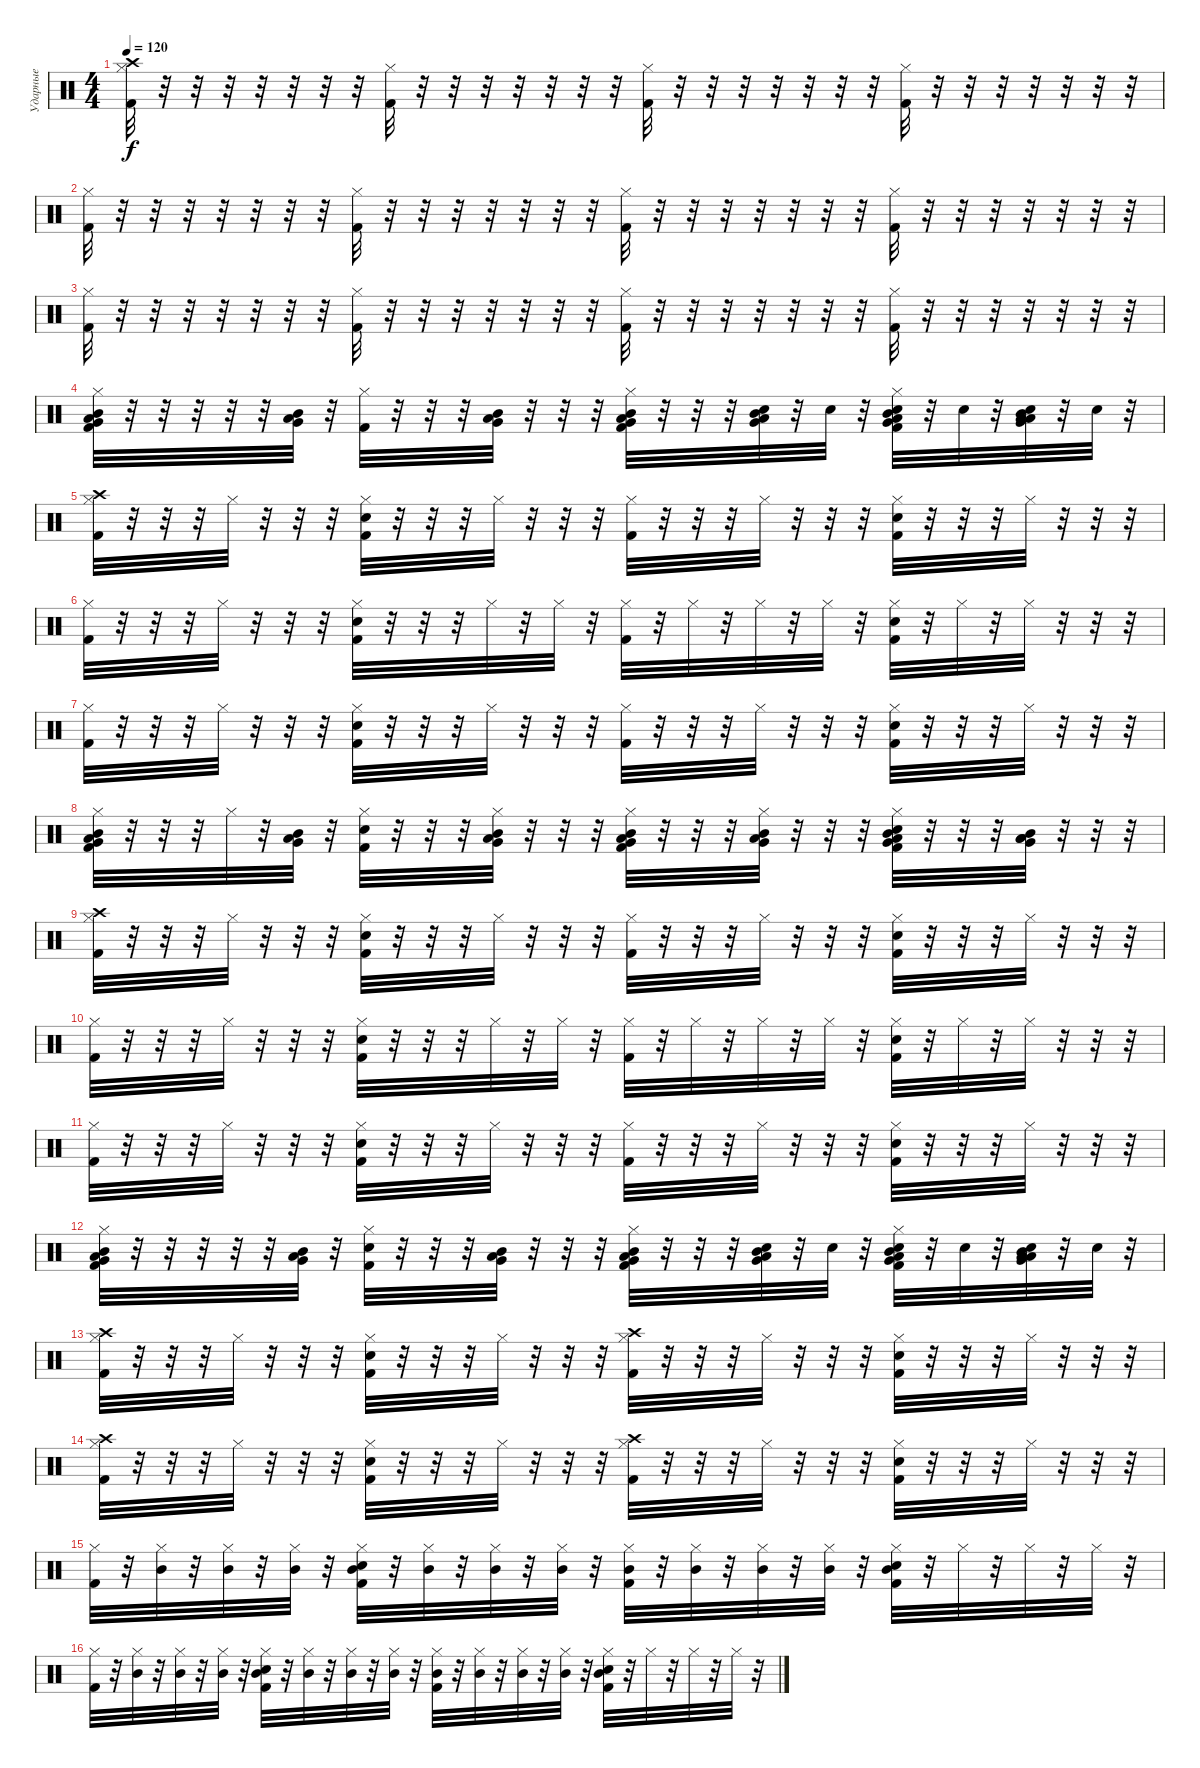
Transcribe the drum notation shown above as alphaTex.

\track ("Ударные" "Ударные") {instrument percussion}
\staff {score}
\articulation defaults
\ts (4 4)
\tempo 120
\clef neutral
\ks c
("Crash high (hit)" "Hi-Hat (closed)" "Kick (hit) 2").32{dy f} r.32 r.32 r.32 r.32 r.32 r.32 r.32 ("Hi-Hat (closed)" "Kick (hit) 2").32 r.32 r.32 r.32 r.32 r.32 r.32 r.32 ("Hi-Hat (closed)" "Kick (hit) 2").32 r.32 r.32 r.32 r.32 r.32 r.32 r.32 ("Kick (hit) 2" "Hi-Hat (closed)").32 r.32 r.32 r.32 r.32 r.32 r.32 r.32 |
("Hi-Hat (closed)" "Kick (hit) 2").32 r.32 r.32 r.32 r.32 r.32 r.32 r.32 ("Hi-Hat (closed)" "Kick (hit) 2").32 r.32 r.32 r.32 r.32 r.32 r.32 r.32 ("Hi-Hat (closed)" "Kick (hit) 2").32 r.32 r.32 r.32 r.32 r.32 r.32 r.32 ("Kick (hit) 2" "Hi-Hat (closed)").32 r.32 r.32 r.32 r.32 r.32 r.32 r.32 |
("Hi-Hat (closed)" "Kick (hit) 2").32 r.32 r.32 r.32 r.32 r.32 r.32 r.32 ("Hi-Hat (closed)" "Kick (hit) 2").32 r.32 r.32 r.32 r.32 r.32 r.32 r.32 ("Hi-Hat (closed)" "Kick (hit) 2").32 r.32 r.32 r.32 r.32 r.32 r.32 r.32 ("Kick (hit) 2" "Hi-Hat (closed)").32 r.32 r.32 r.32 r.32 r.32 r.32 r.32 |
("Very Low Tom (hit)" "Hi-Hat (closed)" "Kick (hit) 2" "Low Tom (hit)" "Mid Tom (hit)").32 r.32 r.32 r.32 r.32 r.32 ("Very Low Tom (hit)" "Low Tom (hit)" "Mid Tom (hit)").32 r.32 ("Hi-Hat (closed)" "Kick (hit) 2").32 r.32 r.32 r.32 ("Very Low Tom (hit)" "Low Tom (hit)" "Mid Tom (hit)").32 r.32 r.32 r.32 ("Very Low Tom (hit)" "Hi-Hat (closed)" "Kick (hit) 2" "Mid Tom (hit)" "Low Tom (hit)").32 r.32 r.32 r.32 ("Very Low Tom (hit)" "Snare (hit) 2" "Mid Tom (hit)" "Low Tom (hit)").32 r.32 "Snare (hit) 2".32 r.32 ("Very Low Tom (hit)" "Snare (hit) 2" "Hi-Hat (closed)" "Kick (hit) 2" "Mid Tom (hit)" "Low Tom (hit)").32 r.32 "Snare (hit) 2".32 r.32 ("Very Low Tom (hit)" "Snare (hit) 2" "Mid Tom (hit)" "Low Tom (hit)" "Low Tom (hit)").32 r.32 "Snare (hit) 2".32 r.32 |
("Crash high (hit)" "Hi-Hat (closed)" "Kick (hit) 2").32 r.32 r.32 r.32 "Hi-Hat (closed)".32 r.32 r.32 r.32 ("Hi-Hat (closed)" "Kick (hit) 2" "Snare (hit) 2").32 r.32 r.32 r.32 "Hi-Hat (closed)".32 r.32 r.32 r.32 ("Hi-Hat (closed)" "Kick (hit) 2").32 r.32 r.32 r.32 "Hi-Hat (closed)".32 r.32 r.32 r.32 ("Snare (hit) 2" "Kick (hit) 2" "Hi-Hat (closed)").32 r.32 r.32 r.32 "Hi-Hat (closed)".32 r.32 r.32 r.32 |
("Hi-Hat (closed)" "Kick (hit) 2").32 r.32 r.32 r.32 "Hi-Hat (closed)".32 r.32 r.32 r.32 ("Hi-Hat (closed)" "Kick (hit) 2" "Snare (hit) 2").32 r.32 r.32 r.32 "Hi-Hat (closed)".32 r.32 "Hi-Hat (closed)".32 r.32 ("Hi-Hat (closed)" "Kick (hit) 2").32 r.32 "Hi-Hat (closed)".32 r.32 "Hi-Hat (closed)".32 r.32 "Hi-Hat (closed)".32 r.32 ("Snare (hit) 2" "Kick (hit) 2" "Hi-Hat (closed)").32 r.32 "Hi-Hat (closed)".32 r.32 "Hi-Hat (closed)".32 r.32 r.32 r.32 |
("Hi-Hat (closed)" "Kick (hit) 2").32 r.32 r.32 r.32 "Hi-Hat (closed)".32 r.32 r.32 r.32 ("Hi-Hat (closed)" "Kick (hit) 2" "Snare (hit) 2").32 r.32 r.32 r.32 "Hi-Hat (closed)".32 r.32 r.32 r.32 ("Hi-Hat (closed)" "Kick (hit) 2").32 r.32 r.32 r.32 "Hi-Hat (closed)".32 r.32 r.32 r.32 ("Snare (hit) 2" "Kick (hit) 2" "Hi-Hat (closed)").32 r.32 r.32 r.32 "Hi-Hat (closed)".32 r.32 r.32 r.32 |
("Very Low Tom (hit)" "Hi-Hat (closed)" "Kick (hit) 2" "Low Tom (hit)" "Mid Tom (hit)").32 r.32 r.32 r.32 "Hi-Hat (closed)".32 r.32 ("Very Low Tom (hit)" "Low Tom (hit)" "Mid Tom (hit)").32 r.32 ("Snare (hit) 2" "Hi-Hat (closed)" "Kick (hit) 2").32 r.32 r.32 r.32 ("Very Low Tom (hit)" "Hi-Hat (closed)" "Low Tom (hit)" "Mid Tom (hit)").32 r.32 r.32 r.32 ("Very Low Tom (hit)" "Hi-Hat (closed)" "Kick (hit) 2" "Mid Tom (hit)" "Low Tom (hit)").32 r.32 r.32 r.32 ("Very Low Tom (hit)" "Hi-Hat (closed)" "Mid Tom (hit)" "Low Tom (hit)").32 r.32 r.32 r.32 ("Very Low Tom (hit)" "Snare (hit) 2" "Hi-Hat (closed)" "Kick (hit) 2" "Mid Tom (hit)" "Low Tom (hit)").32 r.32 r.32 r.32 ("Very Low Tom (hit)" "Mid Tom (hit)" "Low Tom (hit)" "Low Tom (hit)").32 r.32 r.32 r.32 |
("Crash high (hit)" "Hi-Hat (closed)" "Kick (hit) 2").32 r.32 r.32 r.32 "Hi-Hat (closed)".32 r.32 r.32 r.32 ("Hi-Hat (closed)" "Kick (hit) 2" "Snare (hit) 2").32 r.32 r.32 r.32 "Hi-Hat (closed)".32 r.32 r.32 r.32 ("Hi-Hat (closed)" "Kick (hit) 2").32 r.32 r.32 r.32 "Hi-Hat (closed)".32 r.32 r.32 r.32 ("Snare (hit) 2" "Kick (hit) 2" "Hi-Hat (closed)").32 r.32 r.32 r.32 "Hi-Hat (closed)".32 r.32 r.32 r.32 |
("Hi-Hat (closed)" "Kick (hit) 2").32 r.32 r.32 r.32 "Hi-Hat (closed)".32 r.32 r.32 r.32 ("Hi-Hat (closed)" "Kick (hit) 2" "Snare (hit) 2").32 r.32 r.32 r.32 "Hi-Hat (closed)".32 r.32 "Hi-Hat (closed)".32 r.32 ("Hi-Hat (closed)" "Kick (hit) 2").32 r.32 "Hi-Hat (closed)".32 r.32 "Hi-Hat (closed)".32 r.32 "Hi-Hat (closed)".32 r.32 ("Snare (hit) 2" "Kick (hit) 2" "Hi-Hat (closed)").32 r.32 "Hi-Hat (closed)".32 r.32 "Hi-Hat (closed)".32 r.32 r.32 r.32 |
("Hi-Hat (closed)" "Kick (hit) 2").32 r.32 r.32 r.32 "Hi-Hat (closed)".32 r.32 r.32 r.32 ("Hi-Hat (closed)" "Kick (hit) 2" "Snare (hit) 2").32 r.32 r.32 r.32 "Hi-Hat (closed)".32 r.32 r.32 r.32 ("Hi-Hat (closed)" "Kick (hit) 2").32 r.32 r.32 r.32 "Hi-Hat (closed)".32 r.32 r.32 r.32 ("Snare (hit) 2" "Kick (hit) 2" "Hi-Hat (closed)").32 r.32 r.32 r.32 "Hi-Hat (closed)".32 r.32 r.32 r.32 |
("Very Low Tom (hit)" "Hi-Hat (closed)" "Kick (hit) 2" "Low Tom (hit)" "Mid Tom (hit)").32 r.32 r.32 r.32 r.32 r.32 ("Very Low Tom (hit)" "Low Tom (hit)" "Mid Tom (hit)").32 r.32 ("Hi-Hat (closed)" "Kick (hit) 2" "Snare (hit) 2").32 r.32 r.32 r.32 ("Very Low Tom (hit)" "Low Tom (hit)" "Mid Tom (hit)").32 r.32 r.32 r.32 ("Very Low Tom (hit)" "Hi-Hat (closed)" "Kick (hit) 2" "Mid Tom (hit)" "Low Tom (hit)").32 r.32 r.32 r.32 ("Very Low Tom (hit)" "Snare (hit) 2" "Mid Tom (hit)" "Low Tom (hit)").32 r.32 "Snare (hit) 2".32 r.32 ("Very Low Tom (hit)" "Snare (hit) 2" "Hi-Hat (closed)" "Kick (hit) 2" "Mid Tom (hit)" "Low Tom (hit)").32 r.32 "Snare (hit) 2".32 r.32 ("Very Low Tom (hit)" "Snare (hit) 2" "Mid Tom (hit)" "Low Tom (hit)" "Low Tom (hit)").32 r.32 "Snare (hit) 2".32 r.32 |
("Crash high (hit)" "Hi-Hat (closed)" "Kick (hit) 2").32 r.32 r.32 r.32 "Hi-Hat (closed)".32 r.32 r.32 r.32 ("Hi-Hat (closed)" "Kick (hit) 2" "Snare (hit) 2").32 r.32 r.32 r.32 "Hi-Hat (closed)".32 r.32 r.32 r.32 ("Crash high (hit)" "Hi-Hat (closed)" "Kick (hit) 2").32 r.32 r.32 r.32 "Hi-Hat (closed)".32 r.32 r.32 r.32 ("Snare (hit) 2" "Kick (hit) 2" "Hi-Hat (closed)").32 r.32 r.32 r.32 "Hi-Hat (closed)".32 r.32 r.32 r.32 |
("Crash high (hit)" "Hi-Hat (closed)" "Kick (hit) 2").32 r.32 r.32 r.32 "Hi-Hat (closed)".32 r.32 r.32 r.32 ("Hi-Hat (closed)" "Kick (hit) 2" "Snare (hit) 2").32 r.32 r.32 r.32 "Hi-Hat (closed)".32 r.32 r.32 r.32 ("Crash high (hit)" "Hi-Hat (closed)" "Kick (hit) 2").32 r.32 r.32 r.32 "Hi-Hat (closed)".32 r.32 r.32 r.32 ("Snare (hit) 2" "Kick (hit) 2" "Hi-Hat (closed)").32 r.32 r.32 r.32 "Hi-Hat (closed)".32 r.32 r.32 r.32 |
("Hi-Hat (closed)" "Kick (hit) 2").32 r.32 ("Hi-Hat (closed)" "Mid Tom (hit)").32 r.32 ("Hi-Hat (closed)" "Mid Tom (hit)").32 r.32 ("Hi-Hat (closed)" "Mid Tom (hit)").32 r.32 ("Hi-Hat (closed)" "Kick (hit) 2" "Snare (hit) 2" "Mid Tom (hit)").32 r.32 ("Hi-Hat (closed)" "Mid Tom (hit)").32 r.32 ("Hi-Hat (closed)" "Mid Tom (hit)").32 r.32 ("Hi-Hat (closed)" "Mid Tom (hit)").32 r.32 ("Hi-Hat (closed)" "Kick (hit) 2" "Mid Tom (hit)").32 r.32 ("Hi-Hat (closed)" "Mid Tom (hit)").32 r.32 ("Hi-Hat (closed)" "Mid Tom (hit)").32 r.32 ("Hi-Hat (closed)" "Mid Tom (hit)").32 r.32 ("Snare (hit) 2" "Kick (hit) 2" "Hi-Hat (closed)" "Mid Tom (hit)").32 r.32 "Hi-Hat (closed)".32 r.32 "Hi-Hat (closed)".32 r.32 "Hi-Hat (closed)".32 r.32 |
("Hi-Hat (closed)" "Kick (hit) 2").32 r.32 ("Hi-Hat (closed)" "Mid Tom (hit)").32 r.32 ("Hi-Hat (closed)" "Mid Tom (hit)").32 r.32 ("Hi-Hat (closed)" "Mid Tom (hit)").32 r.32 ("Hi-Hat (closed)" "Kick (hit) 2" "Snare (hit) 2" "Mid Tom (hit)").32 r.32 ("Hi-Hat (closed)" "Mid Tom (hit)").32 r.32 ("Hi-Hat (closed)" "Mid Tom (hit)").32 r.32 ("Hi-Hat (closed)" "Mid Tom (hit)").32 r.32 ("Hi-Hat (closed)" "Kick (hit) 2" "Mid Tom (hit)").32 r.32 ("Hi-Hat (closed)" "Mid Tom (hit)").32 r.32 ("Hi-Hat (closed)" "Mid Tom (hit)").32 r.32 ("Hi-Hat (closed)" "Mid Tom (hit)").32 r.32 ("Snare (hit) 2" "Kick (hit) 2" "Hi-Hat (closed)" "Mid Tom (hit)").32 r.32 "Hi-Hat (closed)".32 r.32 "Hi-Hat (closed)".32 r.32 "Hi-Hat (closed)".32 r.32
